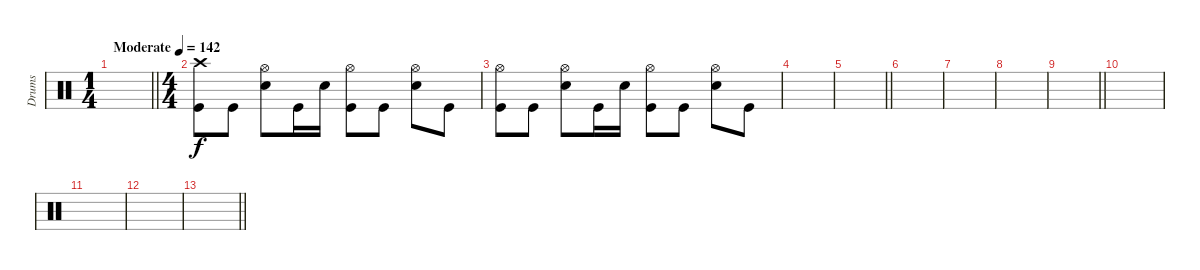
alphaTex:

\track ("Drums" "Drums") {instrument percussion}
\staff
\articulation defaults
\ts (1 4)
\tempo (142 "Moderate")
\clef neutral
\barLineRight lightlight
\ks c
|
\ts (4 4)
("Crash high (hit)" "Kick (hit)").8 "Kick (hit)".8 ("Hi-Hat (open)" "Electric Snare (hit)").8 "Kick (hit)".16 "Electric Snare (hit)".16 ("Hi-Hat (open)" "Kick (hit)").8 "Kick (hit)".8 ("Hi-Hat (open)" "Electric Snare (hit)").8 "Kick (hit)".8 |
("Hi-Hat (open)" "Kick (hit)").8 "Kick (hit)".8 ("Hi-Hat (open)" "Electric Snare (hit)").8 "Kick (hit)".16 "Electric Snare (hit)".16 ("Hi-Hat (open)" "Kick (hit)").8 "Kick (hit)".8 ("Hi-Hat (open)" "Electric Snare (hit)").8 "Kick (hit)".8 |
|
\barLineRight lightlight
|
|
|
|
\barLineRight lightlight
|
|
|
|
\barLineRight lightlight
